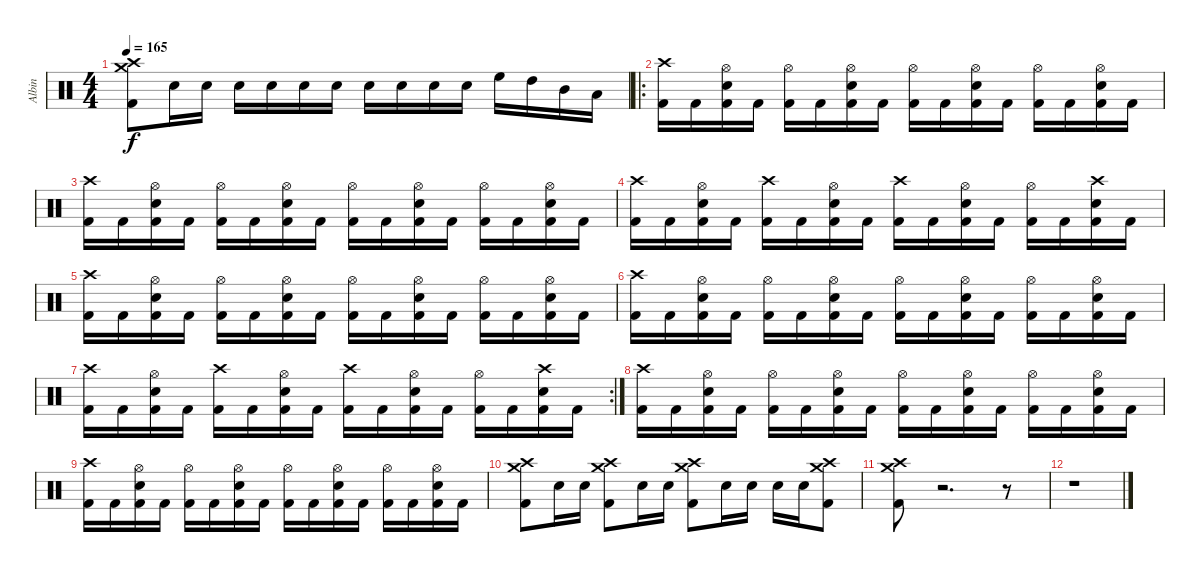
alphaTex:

\track ("Albin" "Albin") {instrument percussion}
\staff {score}
\articulation defaults
\ts (4 4)
\tempo 165
\clef neutral
\ks c
("Kick (hit) 2" "Crash high (hit)" "Crash medium (hit)").8{dy f} "Electric Snare (hit)".16 "Electric Snare (hit)".16 "Electric Snare (hit)".16 "Electric Snare (hit)".16 "Electric Snare (hit)".16 "Electric Snare (hit)".16 "Electric Snare (hit)".16 "Electric Snare (hit)".16 "Electric Snare (hit)".16 "Electric Snare (hit)".16 "High Floor Tom (hit)".16 "High Tom (hit)".16 "Mid Tom (hit)".16 "Low Tom (hit)".16 |
\ro
("Kick (hit) 2" "Crash high (hit)").16 "Kick (hit) 2".16 ("Kick (hit) 2" "Electric Snare (hit)" "Hi-Hat (open)").16 "Kick (hit) 2".16 ("Kick (hit) 2" "Hi-Hat (open)").16 "Kick (hit) 2".16 ("Kick (hit) 2" "Electric Snare (hit)" "Hi-Hat (open)").16 "Kick (hit) 2".16 ("Kick (hit) 2" "Hi-Hat (open)").16 "Kick (hit) 2".16 ("Kick (hit) 2" "Electric Snare (hit)" "Hi-Hat (open)").16 "Kick (hit) 2".16 ("Kick (hit) 2" "Hi-Hat (open)").16 "Kick (hit) 2".16 ("Kick (hit) 2" "Electric Snare (hit)" "Hi-Hat (open)").16 "Kick (hit) 2".16 |
("Kick (hit) 2" "Crash high (hit)").16 "Kick (hit) 2".16 ("Kick (hit) 2" "Electric Snare (hit)" "Hi-Hat (open)").16 "Kick (hit) 2".16 ("Kick (hit) 2" "Hi-Hat (open)").16 "Kick (hit) 2".16 ("Kick (hit) 2" "Electric Snare (hit)" "Hi-Hat (open)").16 "Kick (hit) 2".16 ("Kick (hit) 2" "Hi-Hat (open)").16 "Kick (hit) 2".16 ("Kick (hit) 2" "Electric Snare (hit)" "Hi-Hat (open)").16 "Kick (hit) 2".16 ("Kick (hit) 2" "Hi-Hat (open)").16 "Kick (hit) 2".16 ("Kick (hit) 2" "Electric Snare (hit)" "Hi-Hat (open)").16 "Kick (hit) 2".16 |
("Kick (hit) 2" "Crash high (hit)").16 "Kick (hit) 2".16 ("Kick (hit) 2" "Electric Snare (hit)" "Hi-Hat (open)").16 "Kick (hit) 2".16 ("Kick (hit) 2" "Crash high (hit)").16 "Kick (hit) 2".16 ("Kick (hit) 2" "Electric Snare (hit)" "Hi-Hat (open)").16 "Kick (hit) 2".16 ("Kick (hit) 2" "Crash high (hit)").16 "Kick (hit) 2".16 ("Kick (hit) 2" "Electric Snare (hit)" "Hi-Hat (open)").16 "Kick (hit) 2".16 ("Kick (hit) 2" "Hi-Hat (open)").16 "Kick (hit) 2".16 ("Kick (hit) 2" "Electric Snare (hit)" "Crash high (hit)").16 "Kick (hit) 2".16 |
("Kick (hit) 2" "Crash high (hit)").16 "Kick (hit) 2".16 ("Kick (hit) 2" "Electric Snare (hit)" "Hi-Hat (open)").16 "Kick (hit) 2".16 ("Kick (hit) 2" "Hi-Hat (open)").16 "Kick (hit) 2".16 ("Kick (hit) 2" "Electric Snare (hit)" "Hi-Hat (open)").16 "Kick (hit) 2".16 ("Kick (hit) 2" "Hi-Hat (open)").16 "Kick (hit) 2".16 ("Kick (hit) 2" "Electric Snare (hit)" "Hi-Hat (open)").16 "Kick (hit) 2".16 ("Kick (hit) 2" "Hi-Hat (open)").16 "Kick (hit) 2".16 ("Kick (hit) 2" "Electric Snare (hit)" "Hi-Hat (open)").16 "Kick (hit) 2".16 |
("Kick (hit) 2" "Crash high (hit)").16 "Kick (hit) 2".16 ("Kick (hit) 2" "Electric Snare (hit)" "Hi-Hat (open)").16 "Kick (hit) 2".16 ("Kick (hit) 2" "Hi-Hat (open)").16 "Kick (hit) 2".16 ("Kick (hit) 2" "Electric Snare (hit)" "Hi-Hat (open)").16 "Kick (hit) 2".16 ("Kick (hit) 2" "Hi-Hat (open)").16 "Kick (hit) 2".16 ("Kick (hit) 2" "Electric Snare (hit)" "Hi-Hat (open)").16 "Kick (hit) 2".16 ("Kick (hit) 2" "Hi-Hat (open)").16 "Kick (hit) 2".16 ("Kick (hit) 2" "Electric Snare (hit)" "Hi-Hat (open)").16 "Kick (hit) 2".16 |
\rc 2
("Kick (hit) 2" "Crash high (hit)").16 "Kick (hit) 2".16 ("Kick (hit) 2" "Electric Snare (hit)" "Hi-Hat (open)").16 "Kick (hit) 2".16 ("Kick (hit) 2" "Crash high (hit)").16 "Kick (hit) 2".16 ("Kick (hit) 2" "Electric Snare (hit)" "Hi-Hat (open)").16 "Kick (hit) 2".16 ("Kick (hit) 2" "Crash high (hit)").16 "Kick (hit) 2".16 ("Kick (hit) 2" "Electric Snare (hit)" "Hi-Hat (open)").16 "Kick (hit) 2".16 ("Kick (hit) 2" "Hi-Hat (open)").16 "Kick (hit) 2".16 ("Kick (hit) 2" "Electric Snare (hit)" "Crash high (hit)").16 "Kick (hit) 2".16 |
("Kick (hit) 2" "Crash high (hit)").16 "Kick (hit) 2".16 ("Kick (hit) 2" "Electric Snare (hit)" "Hi-Hat (open)").16 "Kick (hit) 2".16 ("Kick (hit) 2" "Hi-Hat (open)").16 "Kick (hit) 2".16 ("Kick (hit) 2" "Electric Snare (hit)" "Hi-Hat (open)").16 "Kick (hit) 2".16 ("Kick (hit) 2" "Hi-Hat (open)").16 "Kick (hit) 2".16 ("Kick (hit) 2" "Electric Snare (hit)" "Hi-Hat (open)").16 "Kick (hit) 2".16 ("Kick (hit) 2" "Hi-Hat (open)").16 "Kick (hit) 2".16 ("Kick (hit) 2" "Electric Snare (hit)" "Hi-Hat (open)").16 "Kick (hit) 2".16 |
("Kick (hit) 2" "Crash high (hit)").16 "Kick (hit) 2".16 ("Kick (hit) 2" "Electric Snare (hit)" "Hi-Hat (open)").16 "Kick (hit) 2".16 ("Kick (hit) 2" "Hi-Hat (open)").16 "Kick (hit) 2".16 ("Kick (hit) 2" "Electric Snare (hit)" "Hi-Hat (open)").16 "Kick (hit) 2".16 ("Kick (hit) 2" "Hi-Hat (open)").16 "Kick (hit) 2".16 ("Kick (hit) 2" "Electric Snare (hit)" "Hi-Hat (open)").16 "Kick (hit) 2".16 ("Kick (hit) 2" "Hi-Hat (open)").16 "Kick (hit) 2".16 ("Kick (hit) 2" "Electric Snare (hit)" "Hi-Hat (open)").16 "Kick (hit) 2".16 |
("Kick (hit) 2" "Crash high (hit)" "Crash medium (hit)").8 "Electric Snare (hit)".16 "Electric Snare (hit)".16 ("Kick (hit) 2" "Crash high (hit)" "Crash medium (hit)").8 "Electric Snare (hit)".16 "Electric Snare (hit)".16 ("Kick (hit) 2" "Crash high (hit)" "Crash medium (hit)").8 "Electric Snare (hit)".16 "Electric Snare (hit)".16 "Electric Snare (hit)".16 "Electric Snare (hit)".16 ("Kick (hit) 2" "Crash high (hit)" "Crash medium (hit)").8 |
("Kick (hit) 2" "Crash high (hit)" "Crash medium (hit)").8 r.2{d} r.8 |
r.1
